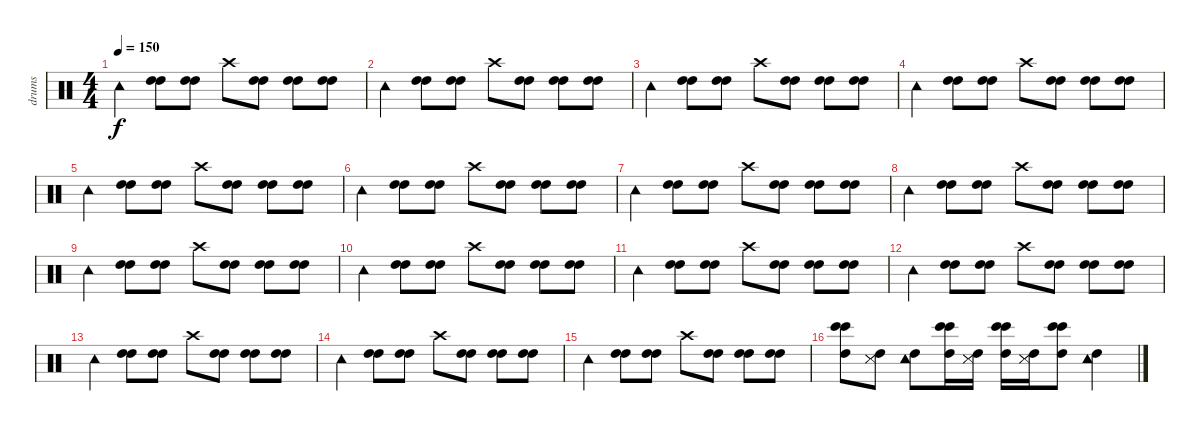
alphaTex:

\track ("drums" "drums") {instrument percussion}
\staff {score}
\articulation defaults
\ts (4 4)
\tempo 150
\clef neutral
\ks c "Tambourine (hit)".4{dy f}
("High Tom (hit)" "High Tom (hit)").8 ("High Tom (hit)" "High Tom (hit)").8 "Crash high (hit)".8 ("High Tom (hit)" "High Tom (hit)").8 ("High Tom (hit)" "High Tom (hit)").8 ("High Tom (hit)" "High Tom (hit)").8 |
"Tambourine (hit)".4 ("High Tom (hit)" "High Tom (hit)").8 ("High Tom (hit)" "High Tom (hit)").8 "Crash high (hit)".8 ("High Tom (hit)" "High Tom (hit)").8 ("High Tom (hit)" "High Tom (hit)").8 ("High Tom (hit)" "High Tom (hit)").8 |
"Tambourine (hit)".4 ("High Tom (hit)" "High Tom (hit)").8 ("High Tom (hit)" "High Tom (hit)").8 "Crash high (hit)".8 ("High Tom (hit)" "High Tom (hit)").8 ("High Tom (hit)" "High Tom (hit)").8 ("High Tom (hit)" "High Tom (hit)").8 |
"Tambourine (hit)".4 ("High Tom (hit)" "High Tom (hit)").8 ("High Tom (hit)" "High Tom (hit)").8 "Crash high (hit)".8 ("High Tom (hit)" "High Tom (hit)").8 ("High Tom (hit)" "High Tom (hit)").8 ("High Tom (hit)" "High Tom (hit)").8 |
"Tambourine (hit)".4 ("High Tom (hit)" "High Tom (hit)").8 ("High Tom (hit)" "High Tom (hit)").8 "Crash high (hit)".8 ("High Tom (hit)" "High Tom (hit)").8 ("High Tom (hit)" "High Tom (hit)").8 ("High Tom (hit)" "High Tom (hit)").8 |
"Tambourine (hit)".4 ("High Tom (hit)" "High Tom (hit)").8 ("High Tom (hit)" "High Tom (hit)").8 "Crash high (hit)".8 ("High Tom (hit)" "High Tom (hit)").8 ("High Tom (hit)" "High Tom (hit)").8 ("High Tom (hit)" "High Tom (hit)").8 |
"Tambourine (hit)".4 ("High Tom (hit)" "High Tom (hit)").8 ("High Tom (hit)" "High Tom (hit)").8 "Crash high (hit)".8 ("High Tom (hit)" "High Tom (hit)").8 ("High Tom (hit)" "High Tom (hit)").8 ("High Tom (hit)" "High Tom (hit)").8 |
"Tambourine (hit)".4 ("High Tom (hit)" "High Tom (hit)").8 ("High Tom (hit)" "High Tom (hit)").8 "Crash high (hit)".8 ("High Tom (hit)" "High Tom (hit)").8 ("High Tom (hit)" "High Tom (hit)").8 ("High Tom (hit)" "High Tom (hit)").8 |
"Tambourine (hit)".4 ("High Tom (hit)" "High Tom (hit)").8 ("High Tom (hit)" "High Tom (hit)").8 "Crash high (hit)".8 ("High Tom (hit)" "High Tom (hit)").8 ("High Tom (hit)" "High Tom (hit)").8 ("High Tom (hit)" "High Tom (hit)").8 |
"Tambourine (hit)".4 ("High Tom (hit)" "High Tom (hit)").8 ("High Tom (hit)" "High Tom (hit)").8 "Crash high (hit)".8 ("High Tom (hit)" "High Tom (hit)").8 ("High Tom (hit)" "High Tom (hit)").8 ("High Tom (hit)" "High Tom (hit)").8 |
"Tambourine (hit)".4 ("High Tom (hit)" "High Tom (hit)").8 ("High Tom (hit)" "High Tom (hit)").8 "Crash high (hit)".8 ("High Tom (hit)" "High Tom (hit)").8 ("High Tom (hit)" "High Tom (hit)").8 ("High Tom (hit)" "High Tom (hit)").8 |
"Tambourine (hit)".4 ("High Tom (hit)" "High Tom (hit)").8 ("High Tom (hit)" "High Tom (hit)").8 "Crash high (hit)".8 ("High Tom (hit)" "High Tom (hit)").8 ("High Tom (hit)" "High Tom (hit)").8 ("High Tom (hit)" "High Tom (hit)").8 |
"Tambourine (hit)".4 ("High Tom (hit)" "High Tom (hit)").8 ("High Tom (hit)" "High Tom (hit)").8 "Crash high (hit)".8 ("High Tom (hit)" "High Tom (hit)").8 ("High Tom (hit)" "High Tom (hit)").8 ("High Tom (hit)" "High Tom (hit)").8 |
"Tambourine (hit)".4 ("High Tom (hit)" "High Tom (hit)").8 ("High Tom (hit)" "High Tom (hit)").8 "Crash high (hit)".8 ("High Tom (hit)" "High Tom (hit)").8 ("High Tom (hit)" "High Tom (hit)").8 ("High Tom (hit)" "High Tom (hit)").8 |
"Tambourine (hit)".4 ("High Tom (hit)" "High Tom (hit)").8 ("High Tom (hit)" "High Tom (hit)").8 "Crash high (hit)".8 ("High Tom (hit)" "High Tom (hit)").8 ("High Tom (hit)" "High Tom (hit)").8 ("High Tom (hit)" "High Tom (hit)").8 |
("Bongo High (hit)" "High Tom (hit)" "Bongo High (hit)").8 ("Snare (side stick) 3" "High Tom (hit)" "Snare (side stick) 3").8 ("Tambourine (hit)" "High Tom (hit)" "Tambourine (hit)").8 ("Bongo High (hit)" "High Tom (hit)" "Bongo High (hit)").16 ("Snare (side stick) 3" "High Tom (hit)" "Snare (side stick) 3").16 ("Bongo High (hit)" "High Tom (hit)" "Bongo High (hit)").16 ("Snare (side stick) 3" "High Tom (hit)" "Snare (side stick) 3").16 ("Bongo High (hit)" "High Tom (hit)" "Bongo High (hit)").8 ("Tambourine (hit)" "High Tom (hit)" "Tambourine (hit)").4
